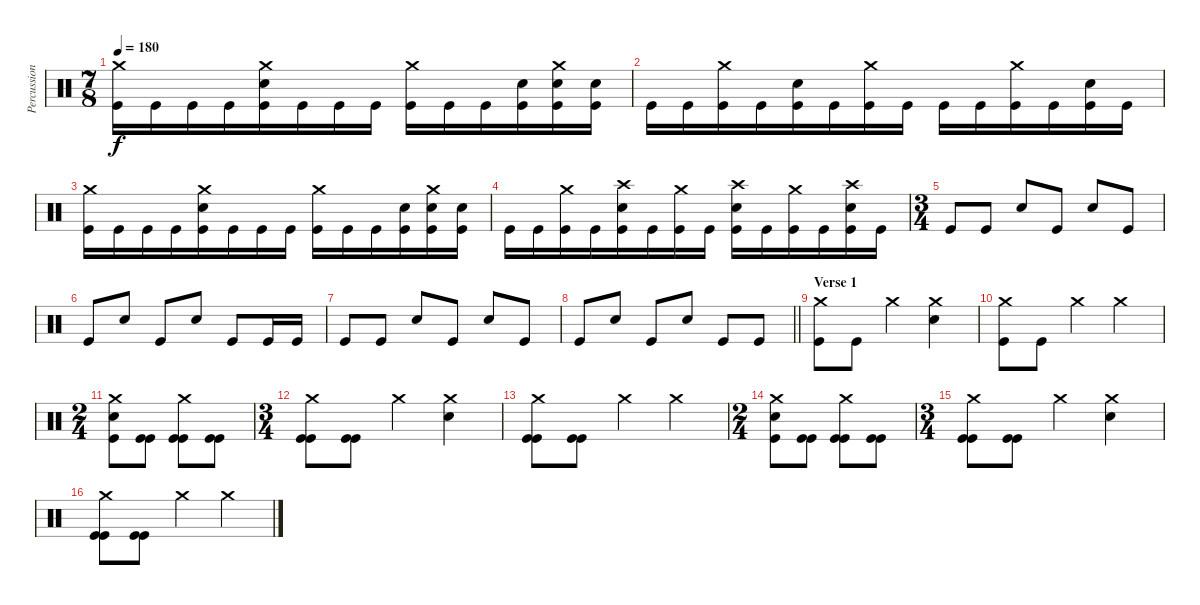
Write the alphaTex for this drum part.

\track ("Percussion" "Percussion") {instrument percussion}
\staff {score}
\articulation defaults
\ts (7 8)
\tempo 180
\clef neutral
\ks c
("Crash medium (hit)" "Kick (hit)").16{dy f} "Kick (hit)".16 "Kick (hit)".16 "Kick (hit)".16 ("Electric Snare (hit)" "Crash medium (hit)" "Kick (hit)").16 "Kick (hit)".16 "Kick (hit)".16 "Kick (hit)".16 ("Crash medium (hit)" "Kick (hit)").16 "Kick (hit)".16 "Kick (hit)".16 ("Electric Snare (hit)" "Kick (hit)").16 ("Electric Snare (hit)" "Crash medium (hit)" "Kick (hit)").16 ("Electric Snare (hit)" "Kick (hit)").16 |
"Kick (hit)".16 "Kick (hit)".16 ("Crash medium (hit)" "Kick (hit)").16 "Kick (hit)".16 ("Electric Snare (hit)" "Kick (hit)").16 "Kick (hit)".16 ("Crash medium (hit)" "Kick (hit)").16 "Kick (hit)".16 "Kick (hit)".16 "Kick (hit)".16 ("Crash medium (hit)" "Kick (hit)").16 "Kick (hit)".16 ("Electric Snare (hit)" "Kick (hit)").16 "Kick (hit)".16 |
("Crash medium (hit)" "Kick (hit)").16 "Kick (hit)".16 "Kick (hit)".16 "Kick (hit)".16 ("Electric Snare (hit)" "Crash medium (hit)" "Kick (hit)").16 "Kick (hit)".16 "Kick (hit)".16 "Kick (hit)".16 ("Crash medium (hit)" "Kick (hit)").16 "Kick (hit)".16 "Kick (hit)".16 ("Electric Snare (hit)" "Kick (hit)").16 ("Electric Snare (hit)" "Crash medium (hit)" "Kick (hit)").16 ("Electric Snare (hit)" "Kick (hit)").16 |
"Kick (hit)".16 "Kick (hit)".16 ("Crash medium (hit)" "Kick (hit)").16 "Kick (hit)".16 ("Crash high (hit)" "Electric Snare (hit)" "Kick (hit)").16 "Kick (hit)".16 ("Crash medium (hit)" "Kick (hit)").16 "Kick (hit)".16 ("Crash high (hit)" "Electric Snare (hit)" "Kick (hit)").16 "Kick (hit)".16 ("Crash medium (hit)" "Kick (hit)").16 "Kick (hit)".16 ("Crash high (hit)" "Electric Snare (hit)" "Kick (hit)").16 "Kick (hit)".16 |
\ts (3 4)
"Kick (hit)".8 "Kick (hit)".8 "Electric Snare (hit)".8 "Kick (hit)".8 "Electric Snare (hit)".8 "Kick (hit)".8 |
"Kick (hit)".8 "Electric Snare (hit)".8 "Kick (hit)".8 "Electric Snare (hit)".8 "Kick (hit)".8 "Kick (hit)".16 "Kick (hit)".16 |
"Kick (hit)".8 "Kick (hit)".8 "Electric Snare (hit)".8 "Kick (hit)".8 "Electric Snare (hit)".8 "Kick (hit)".8 |
\barLineRight lightlight "Kick (hit)".8 "Electric Snare (hit)".8 "Kick (hit)".8 "Electric Snare (hit)".8 "Kick (hit)".8 "Kick (hit)".8
|
\section ("" "Verse 1")
("Crash medium (hit)" "Kick (hit)").8 "Kick (hit)".8 "Crash medium (hit)".4 ("Crash medium (hit)" "Electric Snare (hit)").4 |
("Crash medium (hit)" "Kick (hit)").8 "Kick (hit)".8 "Crash medium (hit)".4 "Crash medium (hit)".4 |
\ts (2 4)
("Crash medium (hit)" "Electric Snare (hit)" "Kick (hit)").8 ("Kick (hit)" "Kick (hit)").8 ("Crash medium (hit)" "Kick (hit)" "Kick (hit)").8 ("Kick (hit)" "Kick (hit)").8 |
\ts (3 4)
("Crash medium (hit)" "Kick (hit)" "Kick (hit)").8 ("Kick (hit)" "Kick (hit)").8 "Crash medium (hit)".4 ("Crash medium (hit)" "Electric Snare (hit)").4 |
("Crash medium (hit)" "Kick (hit)" "Kick (hit)").8 ("Kick (hit)" "Kick (hit)").8 "Crash medium (hit)".4 "Crash medium (hit)".4 |
\ts (2 4)
("Crash medium (hit)" "Electric Snare (hit)" "Kick (hit)").8 ("Kick (hit)" "Kick (hit)").8 ("Crash medium (hit)" "Kick (hit)" "Kick (hit)").8 ("Kick (hit)" "Kick (hit)").8 |
\ts (3 4)
("Crash medium (hit)" "Kick (hit)" "Kick (hit)").8 ("Kick (hit)" "Kick (hit)").8 "Crash medium (hit)".4 ("Crash medium (hit)" "Electric Snare (hit)").4 |
("Crash medium (hit)" "Kick (hit)" "Kick (hit)").8 ("Kick (hit)" "Kick (hit)").8 "Crash medium (hit)".4 "Crash medium (hit)".4
